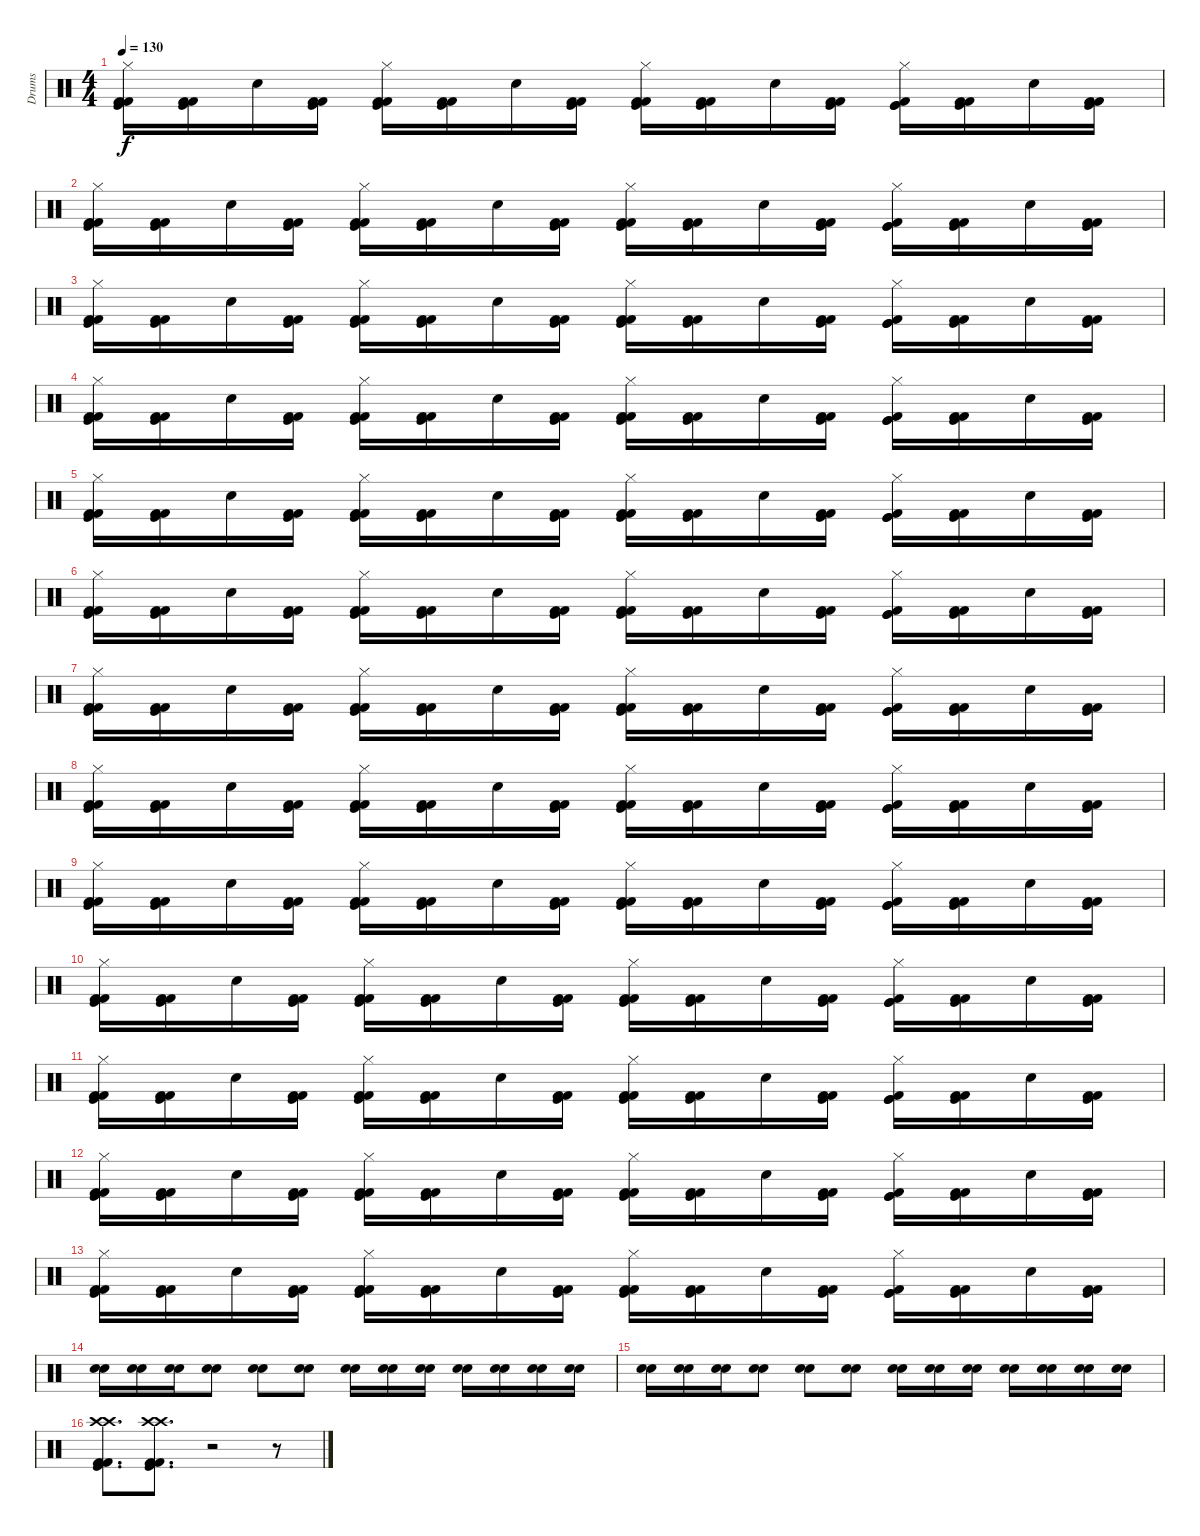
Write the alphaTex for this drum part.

\track ("Drums" "Drums") {instrument percussion}
\staff {score}
\articulation defaults
\ts (4 4)
\tempo 130
\clef neutral
\ks c
("Hi-Hat (closed)" "Kick (hit)" "Kick (hit) 2" "Kick (hit) 2").16{dy f} ("Kick (hit)" "Kick (hit) 2" "Kick (hit) 2").16 "Electric Snare (hit)".16 ("Kick (hit)" "Kick (hit) 2" "Kick (hit) 2").16 ("Hi-Hat (closed)" "Kick (hit)" "Kick (hit) 2" "Kick (hit) 2").16 ("Kick (hit)" "Kick (hit) 2" "Kick (hit) 2").16 "Electric Snare (hit)".16 ("Kick (hit)" "Kick (hit) 2" "Kick (hit) 2").16 ("Hi-Hat (closed)" "Kick (hit)" "Kick (hit) 2" "Kick (hit) 2").16 ("Kick (hit)" "Kick (hit) 2" "Kick (hit) 2").16 "Electric Snare (hit)".16 ("Kick (hit)" "Kick (hit) 2" "Kick (hit) 2").16 ("Hi-Hat (closed)" "Kick (hit)" "Kick (hit)" "Kick (hit) 2").16 ("Kick (hit)" "Kick (hit) 2" "Kick (hit) 2").16 "Electric Snare (hit)".16 ("Kick (hit)" "Kick (hit) 2" "Kick (hit) 2").16 |
("Hi-Hat (closed)" "Kick (hit)" "Kick (hit) 2" "Kick (hit) 2").16 ("Kick (hit)" "Kick (hit) 2" "Kick (hit) 2").16 "Electric Snare (hit)".16 ("Kick (hit)" "Kick (hit) 2" "Kick (hit) 2").16 ("Hi-Hat (closed)" "Kick (hit)" "Kick (hit) 2" "Kick (hit) 2").16 ("Kick (hit)" "Kick (hit) 2" "Kick (hit) 2").16 "Electric Snare (hit)".16 ("Kick (hit)" "Kick (hit) 2" "Kick (hit) 2").16 ("Hi-Hat (closed)" "Kick (hit)" "Kick (hit) 2" "Kick (hit) 2").16 ("Kick (hit)" "Kick (hit) 2" "Kick (hit) 2").16 "Electric Snare (hit)".16 ("Kick (hit)" "Kick (hit) 2" "Kick (hit) 2").16 ("Hi-Hat (closed)" "Kick (hit)" "Kick (hit)" "Kick (hit) 2").16 ("Kick (hit)" "Kick (hit) 2" "Kick (hit) 2").16 "Electric Snare (hit)".16 ("Kick (hit)" "Kick (hit) 2" "Kick (hit) 2").16 |
("Hi-Hat (closed)" "Kick (hit)" "Kick (hit) 2" "Kick (hit) 2").16 ("Kick (hit)" "Kick (hit) 2" "Kick (hit) 2").16 "Electric Snare (hit)".16 ("Kick (hit)" "Kick (hit) 2" "Kick (hit) 2").16 ("Hi-Hat (closed)" "Kick (hit)" "Kick (hit) 2" "Kick (hit) 2").16 ("Kick (hit)" "Kick (hit) 2" "Kick (hit) 2").16 "Electric Snare (hit)".16 ("Kick (hit)" "Kick (hit) 2" "Kick (hit) 2").16 ("Hi-Hat (closed)" "Kick (hit)" "Kick (hit) 2" "Kick (hit) 2").16 ("Kick (hit)" "Kick (hit) 2" "Kick (hit) 2").16 "Electric Snare (hit)".16 ("Kick (hit)" "Kick (hit) 2" "Kick (hit) 2").16 ("Hi-Hat (closed)" "Kick (hit)" "Kick (hit)" "Kick (hit) 2").16 ("Kick (hit)" "Kick (hit) 2" "Kick (hit) 2").16 "Electric Snare (hit)".16 ("Kick (hit)" "Kick (hit) 2" "Kick (hit) 2").16 |
("Hi-Hat (closed)" "Kick (hit)" "Kick (hit) 2" "Kick (hit) 2").16 ("Kick (hit)" "Kick (hit) 2" "Kick (hit) 2").16 "Electric Snare (hit)".16 ("Kick (hit)" "Kick (hit) 2" "Kick (hit) 2").16 ("Hi-Hat (closed)" "Kick (hit)" "Kick (hit) 2" "Kick (hit) 2").16 ("Kick (hit)" "Kick (hit) 2" "Kick (hit) 2").16 "Electric Snare (hit)".16 ("Kick (hit)" "Kick (hit) 2" "Kick (hit) 2").16 ("Hi-Hat (closed)" "Kick (hit)" "Kick (hit) 2" "Kick (hit) 2").16 ("Kick (hit)" "Kick (hit) 2" "Kick (hit) 2").16 "Electric Snare (hit)".16 ("Kick (hit)" "Kick (hit) 2" "Kick (hit) 2").16 ("Hi-Hat (closed)" "Kick (hit)" "Kick (hit)" "Kick (hit) 2").16 ("Kick (hit)" "Kick (hit) 2" "Kick (hit) 2").16 "Electric Snare (hit)".16 ("Kick (hit)" "Kick (hit) 2" "Kick (hit) 2").16 |
("Hi-Hat (closed)" "Kick (hit)" "Kick (hit) 2" "Kick (hit) 2").16 ("Kick (hit)" "Kick (hit) 2" "Kick (hit) 2").16 "Electric Snare (hit)".16 ("Kick (hit)" "Kick (hit) 2" "Kick (hit) 2").16 ("Hi-Hat (closed)" "Kick (hit)" "Kick (hit) 2" "Kick (hit) 2").16 ("Kick (hit)" "Kick (hit) 2" "Kick (hit) 2").16 "Electric Snare (hit)".16 ("Kick (hit)" "Kick (hit) 2" "Kick (hit) 2").16 ("Hi-Hat (closed)" "Kick (hit)" "Kick (hit) 2" "Kick (hit) 2").16 ("Kick (hit)" "Kick (hit) 2" "Kick (hit) 2").16 "Electric Snare (hit)".16 ("Kick (hit)" "Kick (hit) 2" "Kick (hit) 2").16 ("Hi-Hat (closed)" "Kick (hit)" "Kick (hit)" "Kick (hit) 2").16 ("Kick (hit)" "Kick (hit) 2" "Kick (hit) 2").16 "Electric Snare (hit)".16 ("Kick (hit)" "Kick (hit) 2" "Kick (hit) 2").16 |
("Hi-Hat (closed)" "Kick (hit)" "Kick (hit) 2" "Kick (hit) 2").16 ("Kick (hit)" "Kick (hit) 2" "Kick (hit) 2").16 "Electric Snare (hit)".16 ("Kick (hit)" "Kick (hit) 2" "Kick (hit) 2").16 ("Hi-Hat (closed)" "Kick (hit)" "Kick (hit) 2" "Kick (hit) 2").16 ("Kick (hit)" "Kick (hit) 2" "Kick (hit) 2").16 "Electric Snare (hit)".16 ("Kick (hit)" "Kick (hit) 2" "Kick (hit) 2").16 ("Hi-Hat (closed)" "Kick (hit)" "Kick (hit) 2" "Kick (hit) 2").16 ("Kick (hit)" "Kick (hit) 2" "Kick (hit) 2").16 "Electric Snare (hit)".16 ("Kick (hit)" "Kick (hit) 2" "Kick (hit) 2").16 ("Hi-Hat (closed)" "Kick (hit)" "Kick (hit)" "Kick (hit) 2").16 ("Kick (hit)" "Kick (hit) 2" "Kick (hit) 2").16 "Electric Snare (hit)".16 ("Kick (hit)" "Kick (hit) 2" "Kick (hit) 2").16 |
("Hi-Hat (closed)" "Kick (hit)" "Kick (hit) 2" "Kick (hit) 2").16 ("Kick (hit)" "Kick (hit) 2" "Kick (hit) 2").16 "Electric Snare (hit)".16 ("Kick (hit)" "Kick (hit) 2" "Kick (hit) 2").16 ("Hi-Hat (closed)" "Kick (hit)" "Kick (hit) 2" "Kick (hit) 2").16 ("Kick (hit)" "Kick (hit) 2" "Kick (hit) 2").16 "Electric Snare (hit)".16 ("Kick (hit)" "Kick (hit) 2" "Kick (hit) 2").16 ("Hi-Hat (closed)" "Kick (hit)" "Kick (hit) 2" "Kick (hit) 2").16 ("Kick (hit)" "Kick (hit) 2" "Kick (hit) 2").16 "Electric Snare (hit)".16 ("Kick (hit)" "Kick (hit) 2" "Kick (hit) 2").16 ("Hi-Hat (closed)" "Kick (hit)" "Kick (hit)" "Kick (hit) 2").16 ("Kick (hit)" "Kick (hit) 2" "Kick (hit) 2").16 "Electric Snare (hit)".16 ("Kick (hit)" "Kick (hit) 2" "Kick (hit) 2").16 |
("Hi-Hat (closed)" "Kick (hit)" "Kick (hit) 2" "Kick (hit) 2").16 ("Kick (hit)" "Kick (hit) 2" "Kick (hit) 2").16 "Electric Snare (hit)".16 ("Kick (hit)" "Kick (hit) 2" "Kick (hit) 2").16 ("Hi-Hat (closed)" "Kick (hit)" "Kick (hit) 2" "Kick (hit) 2").16 ("Kick (hit)" "Kick (hit) 2" "Kick (hit) 2").16 "Electric Snare (hit)".16 ("Kick (hit)" "Kick (hit) 2" "Kick (hit) 2").16 ("Hi-Hat (closed)" "Kick (hit)" "Kick (hit) 2" "Kick (hit) 2").16 ("Kick (hit)" "Kick (hit) 2" "Kick (hit) 2").16 "Electric Snare (hit)".16 ("Kick (hit)" "Kick (hit) 2" "Kick (hit) 2").16 ("Hi-Hat (closed)" "Kick (hit)" "Kick (hit)" "Kick (hit) 2").16 ("Kick (hit)" "Kick (hit) 2" "Kick (hit) 2").16 "Electric Snare (hit)".16 ("Kick (hit)" "Kick (hit) 2" "Kick (hit) 2").16 |
("Hi-Hat (closed)" "Kick (hit)" "Kick (hit) 2" "Kick (hit) 2").16 ("Kick (hit)" "Kick (hit) 2" "Kick (hit) 2").16 "Electric Snare (hit)".16 ("Kick (hit)" "Kick (hit) 2" "Kick (hit) 2").16 ("Hi-Hat (closed)" "Kick (hit)" "Kick (hit) 2" "Kick (hit) 2").16 ("Kick (hit)" "Kick (hit) 2" "Kick (hit) 2").16 "Electric Snare (hit)".16 ("Kick (hit)" "Kick (hit) 2" "Kick (hit) 2").16 ("Hi-Hat (closed)" "Kick (hit)" "Kick (hit) 2" "Kick (hit) 2").16 ("Kick (hit)" "Kick (hit) 2" "Kick (hit) 2").16 "Electric Snare (hit)".16 ("Kick (hit)" "Kick (hit) 2" "Kick (hit) 2").16 ("Hi-Hat (closed)" "Kick (hit)" "Kick (hit)" "Kick (hit) 2").16 ("Kick (hit)" "Kick (hit) 2" "Kick (hit) 2").16 "Electric Snare (hit)".16 ("Kick (hit)" "Kick (hit) 2" "Kick (hit) 2").16 |
("Hi-Hat (closed)" "Kick (hit)" "Kick (hit) 2" "Kick (hit) 2").16 ("Kick (hit)" "Kick (hit) 2" "Kick (hit) 2").16 "Electric Snare (hit)".16 ("Kick (hit)" "Kick (hit) 2" "Kick (hit) 2").16 ("Hi-Hat (closed)" "Kick (hit)" "Kick (hit) 2" "Kick (hit) 2").16 ("Kick (hit)" "Kick (hit) 2" "Kick (hit) 2").16 "Electric Snare (hit)".16 ("Kick (hit)" "Kick (hit) 2" "Kick (hit) 2").16 ("Hi-Hat (closed)" "Kick (hit)" "Kick (hit) 2" "Kick (hit) 2").16 ("Kick (hit)" "Kick (hit) 2" "Kick (hit) 2").16 "Electric Snare (hit)".16 ("Kick (hit)" "Kick (hit) 2" "Kick (hit) 2").16 ("Hi-Hat (closed)" "Kick (hit)" "Kick (hit)" "Kick (hit) 2").16 ("Kick (hit)" "Kick (hit) 2" "Kick (hit) 2").16 "Electric Snare (hit)".16 ("Kick (hit)" "Kick (hit) 2" "Kick (hit) 2").16 |
("Hi-Hat (closed)" "Kick (hit)" "Kick (hit) 2" "Kick (hit) 2").16 ("Kick (hit)" "Kick (hit) 2" "Kick (hit) 2").16 "Electric Snare (hit)".16 ("Kick (hit)" "Kick (hit) 2" "Kick (hit) 2").16 ("Hi-Hat (closed)" "Kick (hit)" "Kick (hit) 2" "Kick (hit) 2").16 ("Kick (hit)" "Kick (hit) 2" "Kick (hit) 2").16 "Electric Snare (hit)".16 ("Kick (hit)" "Kick (hit) 2" "Kick (hit) 2").16 ("Hi-Hat (closed)" "Kick (hit)" "Kick (hit) 2" "Kick (hit) 2").16 ("Kick (hit)" "Kick (hit) 2" "Kick (hit) 2").16 "Electric Snare (hit)".16 ("Kick (hit)" "Kick (hit) 2" "Kick (hit) 2").16 ("Hi-Hat (closed)" "Kick (hit)" "Kick (hit)" "Kick (hit) 2").16 ("Kick (hit)" "Kick (hit) 2" "Kick (hit) 2").16 "Electric Snare (hit)".16 ("Kick (hit)" "Kick (hit) 2" "Kick (hit) 2").16 |
("Hi-Hat (closed)" "Kick (hit)" "Kick (hit) 2" "Kick (hit) 2").16 ("Kick (hit)" "Kick (hit) 2" "Kick (hit) 2").16 "Electric Snare (hit)".16 ("Kick (hit)" "Kick (hit) 2" "Kick (hit) 2").16 ("Hi-Hat (closed)" "Kick (hit)" "Kick (hit) 2" "Kick (hit) 2").16 ("Kick (hit)" "Kick (hit) 2" "Kick (hit) 2").16 "Electric Snare (hit)".16 ("Kick (hit)" "Kick (hit) 2" "Kick (hit) 2").16 ("Hi-Hat (closed)" "Kick (hit)" "Kick (hit) 2" "Kick (hit) 2").16 ("Kick (hit)" "Kick (hit) 2" "Kick (hit) 2").16 "Electric Snare (hit)".16 ("Kick (hit)" "Kick (hit) 2" "Kick (hit) 2").16 ("Hi-Hat (closed)" "Kick (hit)" "Kick (hit)" "Kick (hit) 2").16 ("Kick (hit)" "Kick (hit) 2" "Kick (hit) 2").16 "Electric Snare (hit)".16 ("Kick (hit)" "Kick (hit) 2" "Kick (hit) 2").16 |
("Hi-Hat (closed)" "Kick (hit)" "Kick (hit) 2" "Kick (hit) 2").16 ("Kick (hit)" "Kick (hit) 2" "Kick (hit) 2").16 "Electric Snare (hit)".16 ("Kick (hit)" "Kick (hit) 2" "Kick (hit) 2").16 ("Hi-Hat (closed)" "Kick (hit)" "Kick (hit) 2" "Kick (hit) 2").16 ("Kick (hit)" "Kick (hit) 2" "Kick (hit) 2").16 "Electric Snare (hit)".16 ("Kick (hit)" "Kick (hit) 2" "Kick (hit) 2").16 ("Hi-Hat (closed)" "Kick (hit)" "Kick (hit) 2" "Kick (hit) 2").16 ("Kick (hit)" "Kick (hit) 2" "Kick (hit) 2").16 "Electric Snare (hit)".16 ("Kick (hit)" "Kick (hit) 2" "Kick (hit) 2").16 ("Hi-Hat (closed)" "Kick (hit)" "Kick (hit)" "Kick (hit) 2").16 ("Kick (hit)" "Kick (hit) 2" "Kick (hit) 2").16 "Electric Snare (hit)".16 ("Kick (hit)" "Kick (hit) 2" "Kick (hit) 2").16 |
("Electric Snare (hit)" "Electric Snare (hit)").16 ("Electric Snare (hit)" "Electric Snare (hit)").16 ("Electric Snare (hit)" "Electric Snare (hit)").16 ("Electric Snare (hit)" "Electric Snare (hit)").8 ("Electric Snare (hit)" "Electric Snare (hit)").8 ("Electric Snare (hit)" "Electric Snare (hit)").8 ("Electric Snare (hit)" "Electric Snare (hit)").16 ("Electric Snare (hit)" "Electric Snare (hit)").16 ("Electric Snare (hit)" "Electric Snare (hit)").16 ("Electric Snare (hit)" "Electric Snare (hit)").16 ("Electric Snare (hit)" "Electric Snare (hit)").16 ("Electric Snare (hit)" "Electric Snare (hit)").16 ("Electric Snare (hit)" "Electric Snare (hit)").16 |
("Electric Snare (hit)" "Electric Snare (hit)").16 ("Electric Snare (hit)" "Electric Snare (hit)").16 ("Electric Snare (hit)" "Electric Snare (hit)").16 ("Electric Snare (hit)" "Electric Snare (hit)").8 ("Electric Snare (hit)" "Electric Snare (hit)").8 ("Electric Snare (hit)" "Electric Snare (hit)").8 ("Electric Snare (hit)" "Electric Snare (hit)").16 ("Electric Snare (hit)" "Electric Snare (hit)").16 ("Electric Snare (hit)" "Electric Snare (hit)").16 ("Electric Snare (hit)" "Electric Snare (hit)").16 ("Electric Snare (hit)" "Electric Snare (hit)").16 ("Electric Snare (hit)" "Electric Snare (hit)").16 ("Electric Snare (hit)" "Electric Snare (hit)").16 |
("Crash high (hit)" "Crash high (hit)" "Kick (hit)" "Kick (hit) 2" "Kick (hit) 2").8{d} ("Crash high (hit)" "Crash high (hit)" "Kick (hit)" "Kick (hit) 2" "Kick (hit) 2").8{d} r.2 r.8
